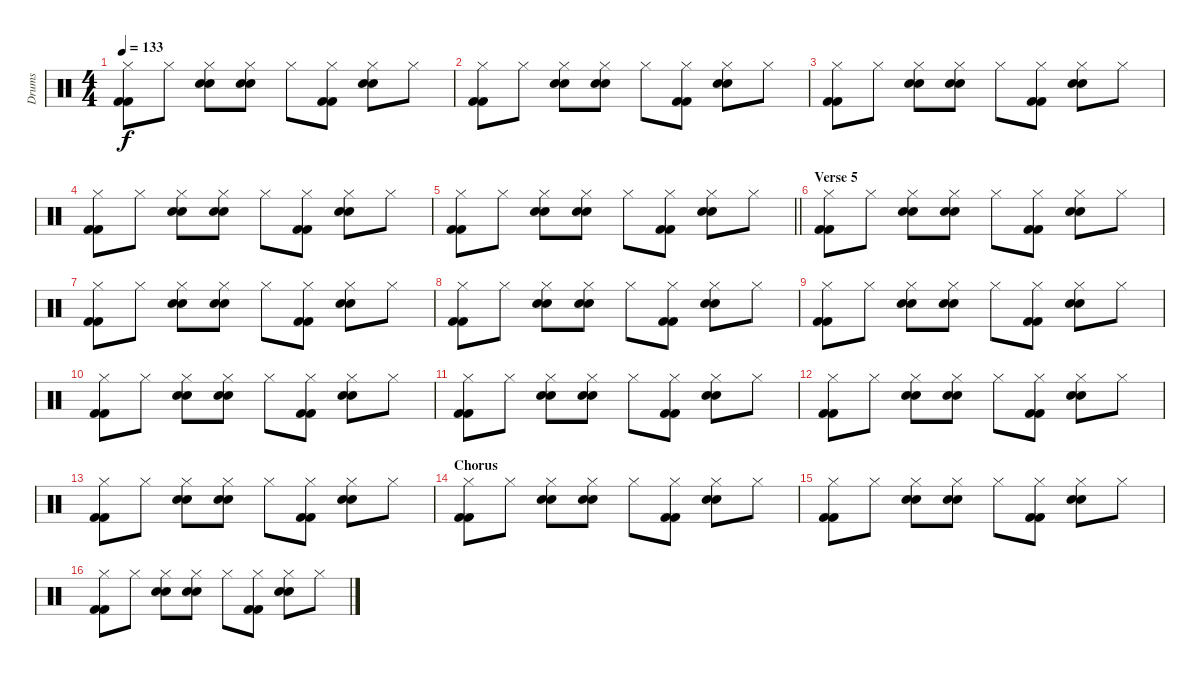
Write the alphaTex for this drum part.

\track ("Drums" "Drums") {instrument percussion}
\staff {score}
\articulation defaults
\ts (4 4)
\tempo 133
\clef neutral
\ks c
("Kick (hit) 2" "Kick (hit) 2" "Hi-Hat (closed)").8{dy f} "Hi-Hat (closed)".8 ("Snare (hit) 2" "Hi-Hat (closed)" "Electric Snare (hit)").8 ("Snare (hit) 2" "Hi-Hat (closed)" "Electric Snare (hit)").8 "Hi-Hat (closed)".8 ("Kick (hit) 2" "Kick (hit) 2" "Hi-Hat (closed)").8 ("Snare (hit) 2" "Hi-Hat (closed)" "Electric Snare (hit)").8 "Hi-Hat (closed)".8 |
("Kick (hit) 2" "Kick (hit) 2" "Hi-Hat (closed)").8 "Hi-Hat (closed)".8 ("Snare (hit) 2" "Hi-Hat (closed)" "Electric Snare (hit)").8 ("Snare (hit) 2" "Hi-Hat (closed)" "Electric Snare (hit)").8 "Hi-Hat (closed)".8 ("Kick (hit) 2" "Kick (hit) 2" "Hi-Hat (closed)").8 ("Snare (hit) 2" "Hi-Hat (closed)" "Electric Snare (hit)").8 "Hi-Hat (closed)".8 |
("Kick (hit) 2" "Kick (hit) 2" "Hi-Hat (closed)").8 "Hi-Hat (closed)".8 ("Snare (hit) 2" "Hi-Hat (closed)" "Electric Snare (hit)").8 ("Snare (hit) 2" "Hi-Hat (closed)" "Electric Snare (hit)").8 "Hi-Hat (closed)".8 ("Kick (hit) 2" "Kick (hit) 2" "Hi-Hat (closed)").8 ("Snare (hit) 2" "Hi-Hat (closed)" "Electric Snare (hit)").8 "Hi-Hat (closed)".8 |
("Kick (hit) 2" "Kick (hit) 2" "Hi-Hat (closed)").8 "Hi-Hat (closed)".8 ("Snare (hit) 2" "Hi-Hat (closed)" "Electric Snare (hit)").8 ("Snare (hit) 2" "Hi-Hat (closed)" "Electric Snare (hit)").8 "Hi-Hat (closed)".8 ("Kick (hit) 2" "Kick (hit) 2" "Hi-Hat (closed)").8 ("Snare (hit) 2" "Hi-Hat (closed)" "Electric Snare (hit)").8 "Hi-Hat (closed)".8 |
\barLineRight lightlight
("Kick (hit) 2" "Kick (hit) 2" "Hi-Hat (closed)").8 "Hi-Hat (closed)".8 ("Snare (hit) 2" "Hi-Hat (closed)" "Electric Snare (hit)").8 ("Snare (hit) 2" "Hi-Hat (closed)" "Electric Snare (hit)").8 "Hi-Hat (closed)".8 ("Kick (hit) 2" "Kick (hit) 2" "Hi-Hat (closed)").8 ("Snare (hit) 2" "Hi-Hat (closed)" "Electric Snare (hit)").8 "Hi-Hat (closed)".8 |
\section ("" "Verse 5")
("Kick (hit) 2" "Kick (hit) 2" "Hi-Hat (closed)").8 "Hi-Hat (closed)".8 ("Snare (hit) 2" "Hi-Hat (closed)" "Electric Snare (hit)").8 ("Snare (hit) 2" "Hi-Hat (closed)" "Electric Snare (hit)").8 "Hi-Hat (closed)".8 ("Kick (hit) 2" "Kick (hit) 2" "Hi-Hat (closed)").8 ("Snare (hit) 2" "Hi-Hat (closed)" "Electric Snare (hit)").8 "Hi-Hat (closed)".8 |
("Kick (hit) 2" "Kick (hit) 2" "Hi-Hat (closed)").8 "Hi-Hat (closed)".8 ("Snare (hit) 2" "Hi-Hat (closed)" "Electric Snare (hit)").8 ("Snare (hit) 2" "Hi-Hat (closed)" "Electric Snare (hit)").8 "Hi-Hat (closed)".8 ("Kick (hit) 2" "Kick (hit) 2" "Hi-Hat (closed)").8 ("Snare (hit) 2" "Hi-Hat (closed)" "Electric Snare (hit)").8 "Hi-Hat (closed)".8 |
("Kick (hit) 2" "Kick (hit) 2" "Hi-Hat (closed)").8 "Hi-Hat (closed)".8 ("Snare (hit) 2" "Hi-Hat (closed)" "Electric Snare (hit)").8 ("Snare (hit) 2" "Hi-Hat (closed)" "Electric Snare (hit)").8 "Hi-Hat (closed)".8 ("Kick (hit) 2" "Kick (hit) 2" "Hi-Hat (closed)").8 ("Snare (hit) 2" "Hi-Hat (closed)" "Electric Snare (hit)").8 "Hi-Hat (closed)".8 |
("Kick (hit) 2" "Kick (hit) 2" "Hi-Hat (closed)").8 "Hi-Hat (closed)".8 ("Snare (hit) 2" "Hi-Hat (closed)" "Electric Snare (hit)").8 ("Snare (hit) 2" "Hi-Hat (closed)" "Electric Snare (hit)").8 "Hi-Hat (closed)".8 ("Kick (hit) 2" "Kick (hit) 2" "Hi-Hat (closed)").8 ("Snare (hit) 2" "Hi-Hat (closed)" "Electric Snare (hit)").8 "Hi-Hat (closed)".8 |
("Kick (hit) 2" "Kick (hit) 2" "Hi-Hat (closed)").8 "Hi-Hat (closed)".8 ("Snare (hit) 2" "Hi-Hat (closed)" "Electric Snare (hit)").8 ("Snare (hit) 2" "Hi-Hat (closed)" "Electric Snare (hit)").8 "Hi-Hat (closed)".8 ("Kick (hit) 2" "Kick (hit) 2" "Hi-Hat (closed)").8 ("Snare (hit) 2" "Hi-Hat (closed)" "Electric Snare (hit)").8 "Hi-Hat (closed)".8 |
("Kick (hit) 2" "Kick (hit) 2" "Hi-Hat (closed)").8 "Hi-Hat (closed)".8 ("Snare (hit) 2" "Hi-Hat (closed)" "Electric Snare (hit)").8 ("Snare (hit) 2" "Hi-Hat (closed)" "Electric Snare (hit)").8 "Hi-Hat (closed)".8 ("Kick (hit) 2" "Kick (hit) 2" "Hi-Hat (closed)").8 ("Snare (hit) 2" "Hi-Hat (closed)" "Electric Snare (hit)").8 "Hi-Hat (closed)".8 |
("Kick (hit) 2" "Kick (hit) 2" "Hi-Hat (closed)").8 "Hi-Hat (closed)".8 ("Snare (hit) 2" "Hi-Hat (closed)" "Electric Snare (hit)").8 ("Snare (hit) 2" "Hi-Hat (closed)" "Electric Snare (hit)").8 "Hi-Hat (closed)".8 ("Kick (hit) 2" "Kick (hit) 2" "Hi-Hat (closed)").8 ("Snare (hit) 2" "Hi-Hat (closed)" "Electric Snare (hit)").8 "Hi-Hat (closed)".8 |
("Kick (hit) 2" "Kick (hit) 2" "Hi-Hat (closed)").8 "Hi-Hat (closed)".8 ("Snare (hit) 2" "Hi-Hat (closed)" "Electric Snare (hit)").8 ("Snare (hit) 2" "Hi-Hat (closed)" "Electric Snare (hit)").8 "Hi-Hat (closed)".8 ("Kick (hit) 2" "Kick (hit) 2" "Hi-Hat (closed)").8 ("Snare (hit) 2" "Hi-Hat (closed)" "Electric Snare (hit)").8 "Hi-Hat (closed)".8 |
\section ("" "Chorus")
("Kick (hit) 2" "Kick (hit) 2" "Hi-Hat (closed)").8 "Hi-Hat (closed)".8 ("Snare (hit) 2" "Hi-Hat (closed)" "Electric Snare (hit)").8 ("Snare (hit) 2" "Hi-Hat (closed)" "Electric Snare (hit)").8 "Hi-Hat (closed)".8 ("Kick (hit) 2" "Kick (hit) 2" "Hi-Hat (closed)").8 ("Snare (hit) 2" "Hi-Hat (closed)" "Electric Snare (hit)").8 "Hi-Hat (closed)".8 |
("Kick (hit) 2" "Kick (hit) 2" "Hi-Hat (closed)").8 "Hi-Hat (closed)".8 ("Snare (hit) 2" "Hi-Hat (closed)" "Electric Snare (hit)").8 ("Snare (hit) 2" "Hi-Hat (closed)" "Electric Snare (hit)").8 "Hi-Hat (closed)".8 ("Kick (hit) 2" "Kick (hit) 2" "Hi-Hat (closed)").8 ("Snare (hit) 2" "Hi-Hat (closed)" "Electric Snare (hit)").8 "Hi-Hat (closed)".8 |
("Kick (hit) 2" "Kick (hit) 2" "Hi-Hat (closed)").8 "Hi-Hat (closed)".8 ("Snare (hit) 2" "Hi-Hat (closed)" "Electric Snare (hit)").8 ("Snare (hit) 2" "Hi-Hat (closed)" "Electric Snare (hit)").8 "Hi-Hat (closed)".8 ("Kick (hit) 2" "Kick (hit) 2" "Hi-Hat (closed)").8 ("Snare (hit) 2" "Hi-Hat (closed)" "Electric Snare (hit)").8 "Hi-Hat (closed)".8
